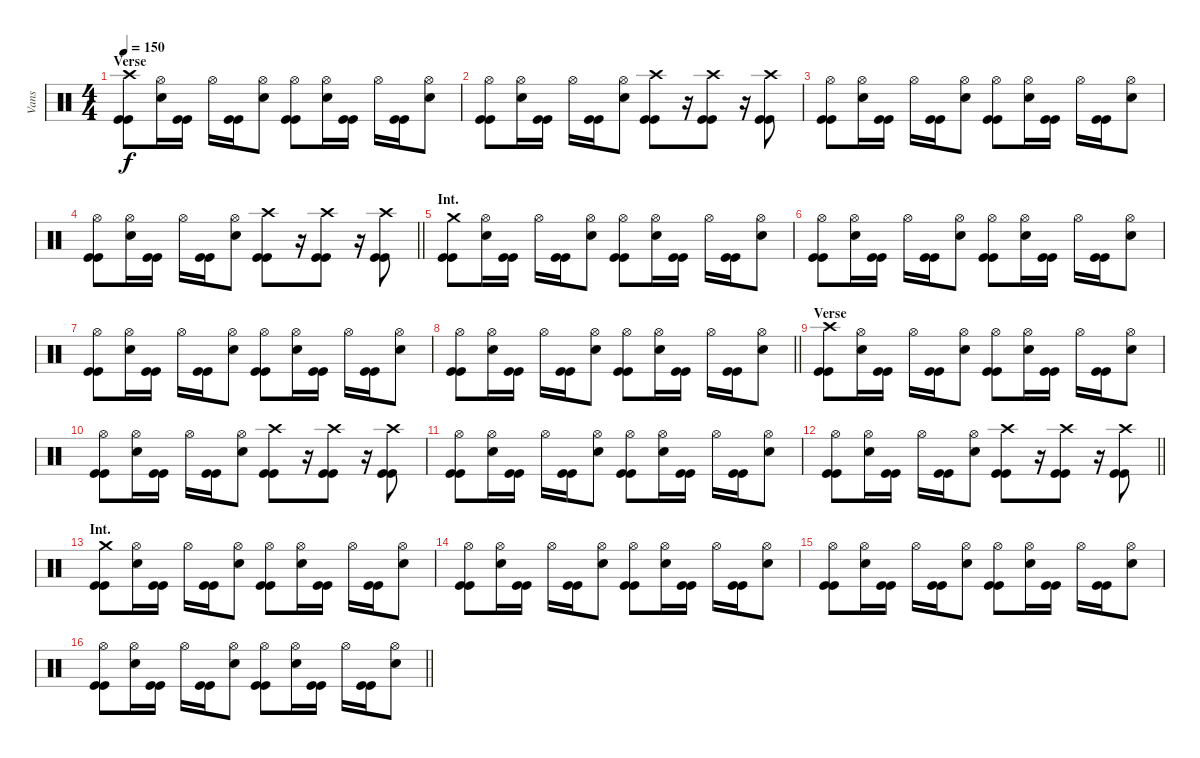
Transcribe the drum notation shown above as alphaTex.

\track ("Vans" "Vans") {instrument percussion}
\staff {score}
\articulation defaults
\ts (4 4)
\section ("" "Verse")
\tempo 150
\clef neutral
\ks c
("Crash high (hit)" "Kick (hit)" "Kick (hit)").8{dy f} ("Hi-Hat (open)" "Snare (hit) 2").16 ("Kick (hit)" "Kick (hit)").16 "Hi-Hat (open)".16 ("Kick (hit)" "Kick (hit)").16 ("Hi-Hat (open)" "Snare (hit) 2").8 ("Hi-Hat (open)" "Kick (hit)" "Kick (hit)").8 ("Hi-Hat (open)" "Snare (hit) 2").16 ("Kick (hit)" "Kick (hit)").16 "Hi-Hat (open)".16 ("Kick (hit)" "Kick (hit)").16 ("Hi-Hat (open)" "Snare (hit) 2").8 |
("Hi-Hat (open)" "Kick (hit)" "Kick (hit)").8 ("Hi-Hat (open)" "Snare (hit) 2").16 ("Kick (hit)" "Kick (hit)").16 "Hi-Hat (open)".16 ("Kick (hit)" "Kick (hit)").16 ("Hi-Hat (open)" "Snare (hit) 2").8 ("Crash high (hit)" "Kick (hit)" "Kick (hit)").8 r.16 ("Crash high (hit)" "Kick (hit)" "Kick (hit)").8 r.16 ("Crash high (hit)" "Kick (hit)" "Kick (hit)").8 |
("Hi-Hat (open)" "Kick (hit)" "Kick (hit)").8 ("Hi-Hat (open)" "Snare (hit) 2").16 ("Kick (hit)" "Kick (hit)").16 "Hi-Hat (open)".16 ("Kick (hit)" "Kick (hit)").16 ("Hi-Hat (open)" "Snare (hit) 2").8 ("Hi-Hat (open)" "Kick (hit)" "Kick (hit)").8 ("Hi-Hat (open)" "Snare (hit) 2").16 ("Kick (hit)" "Kick (hit)").16 "Hi-Hat (open)".16 ("Kick (hit)" "Kick (hit)").16 ("Hi-Hat (open)" "Snare (hit) 2").8 |
\barLineRight lightlight
("Hi-Hat (open)" "Kick (hit)" "Kick (hit)").8 ("Hi-Hat (open)" "Snare (hit) 2").16 ("Kick (hit)" "Kick (hit)").16 "Hi-Hat (open)".16 ("Kick (hit)" "Kick (hit)").16 ("Hi-Hat (open)" "Snare (hit) 2").8 ("Crash high (hit)" "Kick (hit)" "Kick (hit)").8 r.16 ("Crash high (hit)" "Kick (hit)" "Kick (hit)").8 r.16 ("Crash high (hit)" "Kick (hit)" "Kick (hit)").8 |
\section ("" "Int.")
("Crash medium (hit)" "Kick (hit)" "Kick (hit)").8 ("Hi-Hat (open)" "Snare (hit) 2").16 ("Kick (hit)" "Kick (hit)").16 "Hi-Hat (open)".16 ("Kick (hit)" "Kick (hit)").16 ("Hi-Hat (open)" "Snare (hit) 2").8 ("Hi-Hat (open)" "Kick (hit)" "Kick (hit)").8 ("Hi-Hat (open)" "Snare (hit) 2").16 ("Kick (hit)" "Kick (hit)").16 "Hi-Hat (open)".16 ("Kick (hit)" "Kick (hit)").16 ("Hi-Hat (open)" "Snare (hit) 2").8 |
("Hi-Hat (open)" "Kick (hit)" "Kick (hit)").8 ("Hi-Hat (open)" "Snare (hit) 2").16 ("Kick (hit)" "Kick (hit)").16 "Hi-Hat (open)".16 ("Kick (hit)" "Kick (hit)").16 ("Hi-Hat (open)" "Snare (hit) 2").8 ("Hi-Hat (open)" "Kick (hit)" "Kick (hit)").8 ("Hi-Hat (open)" "Snare (hit) 2").16 ("Kick (hit)" "Kick (hit)").16 "Hi-Hat (open)".16 ("Kick (hit)" "Kick (hit)").16 ("Hi-Hat (open)" "Snare (hit) 2").8 |
("Hi-Hat (open)" "Kick (hit)" "Kick (hit)").8 ("Hi-Hat (open)" "Snare (hit) 2").16 ("Kick (hit)" "Kick (hit)").16 "Hi-Hat (open)".16 ("Kick (hit)" "Kick (hit)").16 ("Hi-Hat (open)" "Snare (hit) 2").8 ("Hi-Hat (open)" "Kick (hit)" "Kick (hit)").8 ("Hi-Hat (open)" "Snare (hit) 2").16 ("Kick (hit)" "Kick (hit)").16 "Hi-Hat (open)".16 ("Kick (hit)" "Kick (hit)").16 ("Hi-Hat (open)" "Snare (hit) 2").8 |
\barLineRight lightlight
("Hi-Hat (open)" "Kick (hit)" "Kick (hit)").8 ("Hi-Hat (open)" "Snare (hit) 2").16 ("Kick (hit)" "Kick (hit)").16 "Hi-Hat (open)".16 ("Kick (hit)" "Kick (hit)").16 ("Hi-Hat (open)" "Snare (hit) 2").8 ("Hi-Hat (open)" "Kick (hit)" "Kick (hit)").8 ("Hi-Hat (open)" "Snare (hit) 2").16 ("Kick (hit)" "Kick (hit)").16 "Hi-Hat (open)".16 ("Kick (hit)" "Kick (hit)").16 ("Hi-Hat (open)" "Snare (hit) 2").8 |
\section ("" "Verse")
("Crash high (hit)" "Kick (hit)" "Kick (hit)").8 ("Hi-Hat (open)" "Snare (hit) 2").16 ("Kick (hit)" "Kick (hit)").16 "Hi-Hat (open)".16 ("Kick (hit)" "Kick (hit)").16 ("Hi-Hat (open)" "Snare (hit) 2").8 ("Hi-Hat (open)" "Kick (hit)" "Kick (hit)").8 ("Hi-Hat (open)" "Snare (hit) 2").16 ("Kick (hit)" "Kick (hit)").16 "Hi-Hat (open)".16 ("Kick (hit)" "Kick (hit)").16 ("Hi-Hat (open)" "Snare (hit) 2").8 |
("Hi-Hat (open)" "Kick (hit)" "Kick (hit)").8 ("Hi-Hat (open)" "Snare (hit) 2").16 ("Kick (hit)" "Kick (hit)").16 "Hi-Hat (open)".16 ("Kick (hit)" "Kick (hit)").16 ("Hi-Hat (open)" "Snare (hit) 2").8 ("Crash high (hit)" "Kick (hit)" "Kick (hit)").8 r.16 ("Crash high (hit)" "Kick (hit)" "Kick (hit)").8 r.16 ("Crash high (hit)" "Kick (hit)" "Kick (hit)").8 |
("Hi-Hat (open)" "Kick (hit)" "Kick (hit)").8 ("Hi-Hat (open)" "Snare (hit) 2").16 ("Kick (hit)" "Kick (hit)").16 "Hi-Hat (open)".16 ("Kick (hit)" "Kick (hit)").16 ("Hi-Hat (open)" "Snare (hit) 2").8 ("Hi-Hat (open)" "Kick (hit)" "Kick (hit)").8 ("Hi-Hat (open)" "Snare (hit) 2").16 ("Kick (hit)" "Kick (hit)").16 "Hi-Hat (open)".16 ("Kick (hit)" "Kick (hit)").16 ("Hi-Hat (open)" "Snare (hit) 2").8 |
\barLineRight lightlight
("Hi-Hat (open)" "Kick (hit)" "Kick (hit)").8 ("Hi-Hat (open)" "Snare (hit) 2").16 ("Kick (hit)" "Kick (hit)").16 "Hi-Hat (open)".16 ("Kick (hit)" "Kick (hit)").16 ("Hi-Hat (open)" "Snare (hit) 2").8 ("Crash high (hit)" "Kick (hit)" "Kick (hit)").8 r.16 ("Crash high (hit)" "Kick (hit)" "Kick (hit)").8 r.16 ("Crash high (hit)" "Kick (hit)" "Kick (hit)").8 |
\section ("" "Int.")
("Crash medium (hit)" "Kick (hit)" "Kick (hit)").8 ("Hi-Hat (open)" "Snare (hit) 2").16 ("Kick (hit)" "Kick (hit)").16 "Hi-Hat (open)".16 ("Kick (hit)" "Kick (hit)").16 ("Hi-Hat (open)" "Snare (hit) 2").8 ("Hi-Hat (open)" "Kick (hit)" "Kick (hit)").8 ("Hi-Hat (open)" "Snare (hit) 2").16 ("Kick (hit)" "Kick (hit)").16 "Hi-Hat (open)".16 ("Kick (hit)" "Kick (hit)").16 ("Hi-Hat (open)" "Snare (hit) 2").8 |
("Hi-Hat (open)" "Kick (hit)" "Kick (hit)").8 ("Hi-Hat (open)" "Snare (hit) 2").16 ("Kick (hit)" "Kick (hit)").16 "Hi-Hat (open)".16 ("Kick (hit)" "Kick (hit)").16 ("Hi-Hat (open)" "Snare (hit) 2").8 ("Hi-Hat (open)" "Kick (hit)" "Kick (hit)").8 ("Hi-Hat (open)" "Snare (hit) 2").16 ("Kick (hit)" "Kick (hit)").16 "Hi-Hat (open)".16 ("Kick (hit)" "Kick (hit)").16 ("Hi-Hat (open)" "Snare (hit) 2").8 |
("Hi-Hat (open)" "Kick (hit)" "Kick (hit)").8 ("Hi-Hat (open)" "Snare (hit) 2").16 ("Kick (hit)" "Kick (hit)").16 "Hi-Hat (open)".16 ("Kick (hit)" "Kick (hit)").16 ("Hi-Hat (open)" "Snare (hit) 2").8 ("Hi-Hat (open)" "Kick (hit)" "Kick (hit)").8 ("Hi-Hat (open)" "Snare (hit) 2").16 ("Kick (hit)" "Kick (hit)").16 "Hi-Hat (open)".16 ("Kick (hit)" "Kick (hit)").16 ("Hi-Hat (open)" "Snare (hit) 2").8 |
\barLineRight lightlight
("Hi-Hat (open)" "Kick (hit)" "Kick (hit)").8 ("Hi-Hat (open)" "Snare (hit) 2").16 ("Kick (hit)" "Kick (hit)").16 "Hi-Hat (open)".16 ("Kick (hit)" "Kick (hit)").16 ("Hi-Hat (open)" "Snare (hit) 2").8 ("Hi-Hat (open)" "Kick (hit)" "Kick (hit)").8 ("Hi-Hat (open)" "Snare (hit) 2").16 ("Kick (hit)" "Kick (hit)").16 "Hi-Hat (open)".16 ("Kick (hit)" "Kick (hit)").16 ("Hi-Hat (open)" "Snare (hit) 2").8
